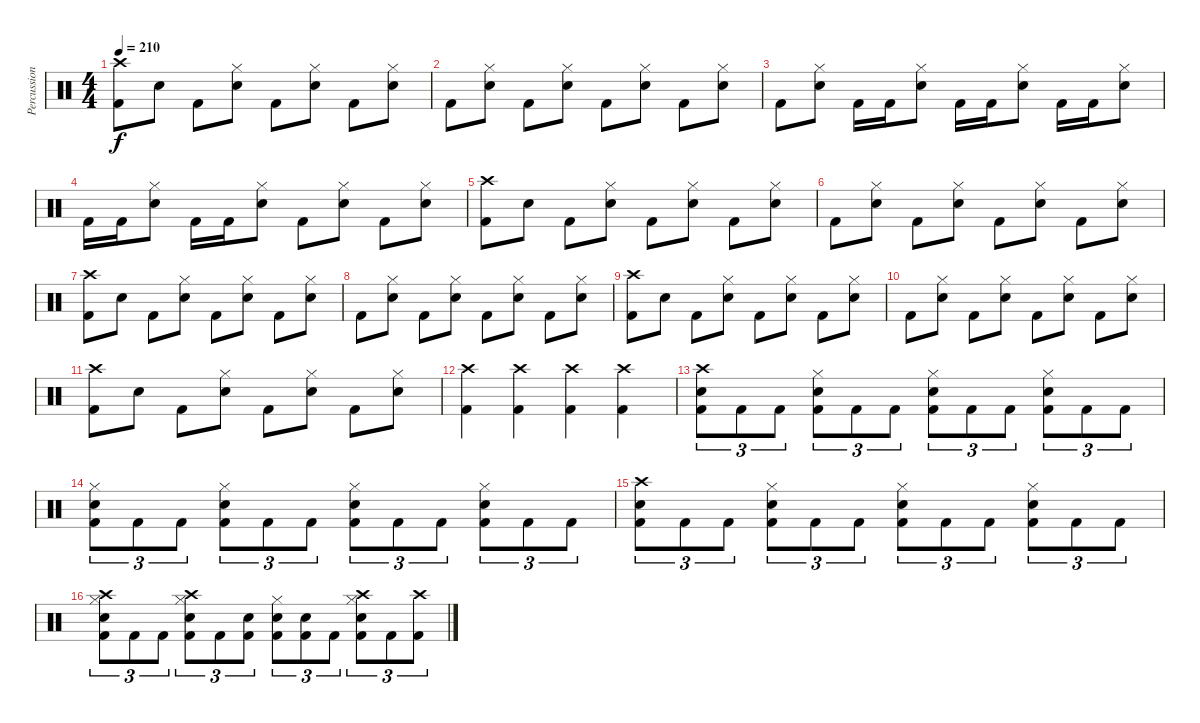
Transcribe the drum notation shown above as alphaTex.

\track ("Percussions" "Percussion") {instrument percussion}
\staff {score}
\articulation defaults
\ts (4 4)
\tempo 210
\clef neutral
\ks c
("Crash high (hit)" "Kick (hit) 2").8{dy f} "Electric Snare (hit)".8 "Kick (hit) 2".8 ("Hi-Hat (closed)" "Electric Snare (hit)").8 "Kick (hit) 2".8 ("Hi-Hat (closed)" "Electric Snare (hit)").8 "Kick (hit) 2".8 ("Hi-Hat (closed)" "Electric Snare (hit)").8 |
"Kick (hit) 2".8 ("Hi-Hat (closed)" "Electric Snare (hit)").8 "Kick (hit) 2".8 ("Hi-Hat (closed)" "Electric Snare (hit)").8 "Kick (hit) 2".8 ("Hi-Hat (closed)" "Electric Snare (hit)").8 "Kick (hit) 2".8 ("Hi-Hat (closed)" "Electric Snare (hit)").8 |
"Kick (hit) 2".8 ("Hi-Hat (closed)" "Electric Snare (hit)").8 "Kick (hit) 2".16 "Kick (hit) 2".16 ("Hi-Hat (closed)" "Electric Snare (hit)").8 "Kick (hit) 2".16 "Kick (hit) 2".16 ("Hi-Hat (closed)" "Electric Snare (hit)").8 "Kick (hit) 2".16 "Kick (hit) 2".16 ("Hi-Hat (closed)" "Electric Snare (hit)").8 |
"Kick (hit) 2".16 "Kick (hit) 2".16 ("Hi-Hat (closed)" "Electric Snare (hit)").8 "Kick (hit) 2".16 "Kick (hit) 2".16 ("Hi-Hat (closed)" "Electric Snare (hit)").8 "Kick (hit) 2".8 ("Hi-Hat (closed)" "Electric Snare (hit)").8 "Kick (hit) 2".8 ("Hi-Hat (closed)" "Electric Snare (hit)").8 |
("Crash high (hit)" "Kick (hit) 2").8 "Electric Snare (hit)".8 "Kick (hit) 2".8 ("Hi-Hat (closed)" "Electric Snare (hit)").8 "Kick (hit) 2".8 ("Hi-Hat (closed)" "Electric Snare (hit)").8 "Kick (hit) 2".8 ("Hi-Hat (closed)" "Electric Snare (hit)").8 |
"Kick (hit) 2".8 ("Hi-Hat (closed)" "Electric Snare (hit)").8 "Kick (hit) 2".8 ("Hi-Hat (closed)" "Electric Snare (hit)").8 "Kick (hit) 2".8 ("Hi-Hat (closed)" "Electric Snare (hit)").8 "Kick (hit) 2".8 ("Hi-Hat (closed)" "Electric Snare (hit)").8 |
("Crash high (hit)" "Kick (hit) 2").8 "Electric Snare (hit)".8 "Kick (hit) 2".8 ("Hi-Hat (closed)" "Electric Snare (hit)").8 "Kick (hit) 2".8 ("Hi-Hat (closed)" "Electric Snare (hit)").8 "Kick (hit) 2".8 ("Hi-Hat (closed)" "Electric Snare (hit)").8 |
"Kick (hit) 2".8 ("Hi-Hat (closed)" "Electric Snare (hit)").8 "Kick (hit) 2".8 ("Hi-Hat (closed)" "Electric Snare (hit)").8 "Kick (hit) 2".8 ("Hi-Hat (closed)" "Electric Snare (hit)").8 "Kick (hit) 2".8 ("Hi-Hat (closed)" "Electric Snare (hit)").8 |
("Crash high (hit)" "Kick (hit) 2").8 "Electric Snare (hit)".8 "Kick (hit) 2".8 ("Hi-Hat (closed)" "Electric Snare (hit)").8 "Kick (hit) 2".8 ("Hi-Hat (closed)" "Electric Snare (hit)").8 "Kick (hit) 2".8 ("Hi-Hat (closed)" "Electric Snare (hit)").8 |
"Kick (hit) 2".8 ("Hi-Hat (closed)" "Electric Snare (hit)").8 "Kick (hit) 2".8 ("Hi-Hat (closed)" "Electric Snare (hit)").8 "Kick (hit) 2".8 ("Hi-Hat (closed)" "Electric Snare (hit)").8 "Kick (hit) 2".8 ("Hi-Hat (closed)" "Electric Snare (hit)").8 |
("Crash high (hit)" "Kick (hit) 2").8 "Electric Snare (hit)".8 "Kick (hit) 2".8 ("Hi-Hat (closed)" "Electric Snare (hit)").8 "Kick (hit) 2".8 ("Hi-Hat (closed)" "Electric Snare (hit)").8 "Kick (hit) 2".8 ("Hi-Hat (closed)" "Electric Snare (hit)").8 |
("Crash high (hit)" "Kick (hit) 2").4 ("Crash high (hit)" "Kick (hit) 2").4 ("Crash high (hit)" "Kick (hit) 2").4 ("Crash high (hit)" "Kick (hit) 2").4 |
("Crash high (hit)" "Electric Snare (hit)" "Kick (hit) 2").8{tu (3 2)} "Kick (hit) 2".8{tu (3 2)} "Kick (hit) 2".8{tu (3 2)} ("Hi-Hat (closed)" "Electric Snare (hit)" "Kick (hit) 2").8{tu (3 2)} "Kick (hit) 2".8{tu (3 2)} "Kick (hit) 2".8{tu (3 2)} ("Hi-Hat (closed)" "Electric Snare (hit)" "Kick (hit) 2").8{tu (3 2)} "Kick (hit) 2".8{tu (3 2)} "Kick (hit) 2".8{tu (3 2)} ("Hi-Hat (closed)" "Electric Snare (hit)" "Kick (hit) 2").8{tu (3 2)} "Kick (hit) 2".8{tu (3 2)} "Kick (hit) 2".8{tu (3 2)} |
("Hi-Hat (closed)" "Electric Snare (hit)" "Kick (hit) 2").8{tu (3 2)} "Kick (hit) 2".8{tu (3 2)} "Kick (hit) 2".8{tu (3 2)} ("Hi-Hat (closed)" "Electric Snare (hit)" "Kick (hit) 2").8{tu (3 2)} "Kick (hit) 2".8{tu (3 2)} "Kick (hit) 2".8{tu (3 2)} ("Hi-Hat (closed)" "Electric Snare (hit)" "Kick (hit) 2").8{tu (3 2)} "Kick (hit) 2".8{tu (3 2)} "Kick (hit) 2".8{tu (3 2)} ("Hi-Hat (closed)" "Electric Snare (hit)" "Kick (hit) 2").8{tu (3 2)} "Kick (hit) 2".8{tu (3 2)} "Kick (hit) 2".8{tu (3 2)} |
("Crash high (hit)" "Electric Snare (hit)" "Kick (hit) 2").8{tu (3 2)} "Kick (hit) 2".8{tu (3 2)} "Kick (hit) 2".8{tu (3 2)} ("Hi-Hat (closed)" "Electric Snare (hit)" "Kick (hit) 2").8{tu (3 2)} "Kick (hit) 2".8{tu (3 2)} "Kick (hit) 2".8{tu (3 2)} ("Hi-Hat (closed)" "Electric Snare (hit)" "Kick (hit) 2").8{tu (3 2)} "Kick (hit) 2".8{tu (3 2)} "Kick (hit) 2".8{tu (3 2)} ("Hi-Hat (closed)" "Electric Snare (hit)" "Kick (hit) 2").8{tu (3 2)} "Kick (hit) 2".8{tu (3 2)} "Kick (hit) 2".8{tu (3 2)} |
("Crash high (hit)" "Hi-Hat (closed)" "Electric Snare (hit)" "Kick (hit) 2").8{tu (3 2)} "Kick (hit) 2".8{tu (3 2)} "Kick (hit) 2".8{tu (3 2)} ("Crash high (hit)" "Hi-Hat (closed)" "Electric Snare (hit)" "Kick (hit) 2").8{tu (3 2)} "Kick (hit) 2".8{tu (3 2)} ("Electric Snare (hit)" "Kick (hit) 2").8{tu (3 2)} ("Hi-Hat (closed)" "Electric Snare (hit)" "Kick (hit) 2").8{tu (3 2)} ("Electric Snare (hit)" "Kick (hit) 2").8{tu (3 2)} "Kick (hit) 2".8{tu (3 2)} ("Crash high (hit)" "Hi-Hat (closed)" "Electric Snare (hit)" "Kick (hit) 2").8{tu (3 2)} "Kick (hit) 2".8{tu (3 2)} ("Crash high (hit)" "Kick (hit) 2").8{tu (3 2)}
